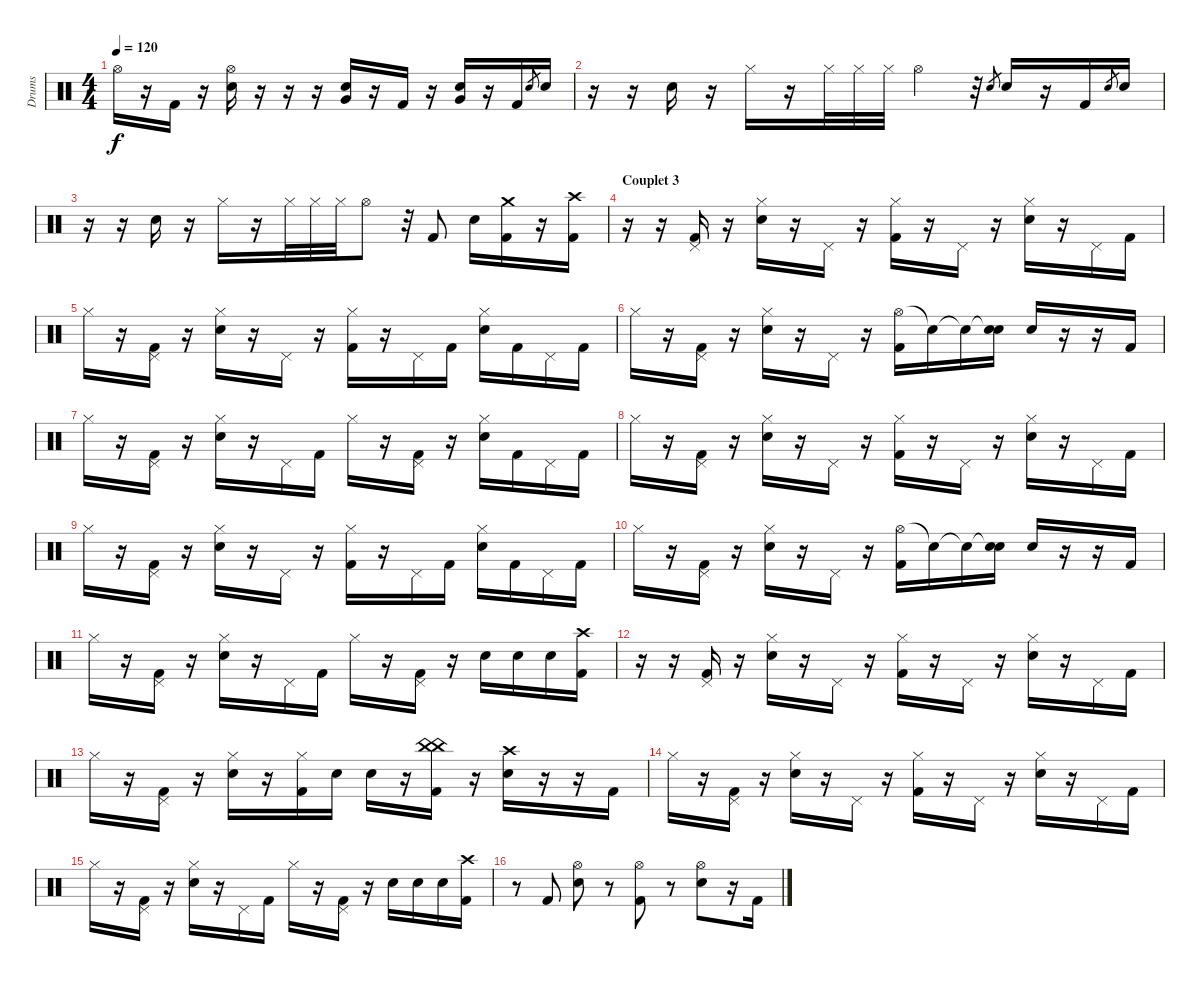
\track ("Drums" "Drums") {instrument percussion}
\staff {score}
\articulation defaults
\ts (4 4)
\tempo 120
\clef neutral
\ks c "Hi-Hat (open)".16{dy f}
r.16 "Kick (hit) 2".16 r.16 ("Hi-Hat (open)" "Electric Snare (hit)").16 r.16 r.16 r.16 ("Electric Snare (hit)" "Very Low Tom (hit)").16 r.16 "Kick (hit) 2".16 r.16 ("Electric Snare (hit)" "Very Low Tom (hit)").16 r.16 "Kick (hit) 2".16 "Electric Snare (hit)".8{gr} "Electric Snare (hit)".16 |
r.16 r.16 "Electric Snare (hit)".16 r.16 "Hi-Hat (closed)".16 r.16 "Hi-Hat (closed)".32 "Hi-Hat (closed)".32 "Hi-Hat (closed)".32 "Hi-Hat (open)".4 r.32 "Electric Snare (hit)".8{gr} "Electric Snare (hit)".16 r.16 "Kick (hit) 2".16 "Electric Snare (hit)".8{gr} "Electric Snare (hit)".16 |
r.16 r.16 "Electric Snare (hit)".16 r.16 "Hi-Hat (closed)".16 r.16 "Hi-Hat (closed)".32 "Hi-Hat (closed)".32 "Hi-Hat (closed)".32 "Hi-Hat (open)".8 r.32 "Kick (hit) 2".8 "Electric Snare (hit)".16 ("Crash medium (hit)" "Kick (hit) 2").16 r.16 ("Crash high (hit)" "Kick (hit) 2").16 |
\section ("" "Couplet 3")
r.16 r.16 ("Pedal Hi-Hat (hit)" "Kick (hit) 2").16 r.16 ("Hi-Hat (closed)" "Electric Snare (hit)").16 r.16 "Pedal Hi-Hat (hit)".16 r.16 ("Hi-Hat (closed)" "Kick (hit) 2").16 r.16 "Pedal Hi-Hat (hit)".16 r.16 ("Hi-Hat (closed)" "Electric Snare (hit)").16 r.16 "Pedal Hi-Hat (hit)".16 "Kick (hit) 2".16 |
"Hi-Hat (closed)".16 r.16 ("Pedal Hi-Hat (hit)" "Kick (hit) 2").16 r.16 ("Hi-Hat (closed)" "Electric Snare (hit)").16 r.16 "Pedal Hi-Hat (hit)".16 r.16 ("Hi-Hat (closed)" "Kick (hit) 2").16 r.16 "Pedal Hi-Hat (hit)".16 "Kick (hit) 2".16 ("Hi-Hat (closed)" "Electric Snare (hit)").16 "Kick (hit) 2".16 "Pedal Hi-Hat (hit)".16 "Kick (hit) 2".16 |
"Hi-Hat (closed)".16 r.16 ("Pedal Hi-Hat (hit)" "Kick (hit) 2").16 r.16 ("Hi-Hat (closed)" "Electric Snare (hit)").16 r.16 "Pedal Hi-Hat (hit)".16 r.16 ("Hi-Hat (open)" "Kick (hit) 2").16 "Snare (hit)"{t}.16 "Snare (hit)"{t}.16 ("Snare (hit)"{t} "Electric Snare (hit)").16 "Electric Snare (hit)".16 r.16 r.16 "Kick (hit) 2".16 |
"Hi-Hat (closed)".16 r.16 ("Pedal Hi-Hat (hit)" "Kick (hit) 2").16 r.16 ("Hi-Hat (closed)" "Electric Snare (hit)").16 r.16 "Pedal Hi-Hat (hit)".16 "Kick (hit) 2".16 "Hi-Hat (closed)".16 r.16 ("Pedal Hi-Hat (hit)" "Kick (hit) 2").16 r.16 ("Hi-Hat (closed)" "Electric Snare (hit)").16 "Kick (hit) 2".16 "Pedal Hi-Hat (hit)".16 "Kick (hit) 2".16 |
"Hi-Hat (closed)".16 r.16 ("Pedal Hi-Hat (hit)" "Kick (hit) 2").16 r.16 ("Hi-Hat (closed)" "Electric Snare (hit)").16 r.16 "Pedal Hi-Hat (hit)".16 r.16 ("Hi-Hat (closed)" "Kick (hit) 2").16 r.16 "Pedal Hi-Hat (hit)".16 r.16 ("Hi-Hat (closed)" "Electric Snare (hit)").16 r.16 "Pedal Hi-Hat (hit)".16 "Kick (hit) 2".16 |
"Hi-Hat (closed)".16 r.16 ("Pedal Hi-Hat (hit)" "Kick (hit) 2").16 r.16 ("Hi-Hat (closed)" "Electric Snare (hit)").16 r.16 "Pedal Hi-Hat (hit)".16 r.16 ("Hi-Hat (closed)" "Kick (hit) 2").16 r.16 "Pedal Hi-Hat (hit)".16 "Kick (hit) 2".16 ("Hi-Hat (closed)" "Electric Snare (hit)").16 "Kick (hit) 2".16 "Pedal Hi-Hat (hit)".16 "Kick (hit) 2".16 |
"Hi-Hat (closed)".16 r.16 ("Pedal Hi-Hat (hit)" "Kick (hit) 2").16 r.16 ("Hi-Hat (closed)" "Electric Snare (hit)").16 r.16 "Pedal Hi-Hat (hit)".16 r.16 ("Hi-Hat (open)" "Kick (hit) 2").16 "Snare (hit)"{t}.16 "Snare (hit)"{t}.16 ("Snare (hit)"{t} "Electric Snare (hit)").16 "Electric Snare (hit)".16 r.16 r.16 "Kick (hit) 2".16 |
"Hi-Hat (closed)".16 r.16 ("Pedal Hi-Hat (hit)" "Kick (hit) 2").16 r.16 ("Hi-Hat (closed)" "Electric Snare (hit)").16 r.16 "Pedal Hi-Hat (hit)".16 "Kick (hit) 2".16 "Hi-Hat (closed)".16 r.16 ("Pedal Hi-Hat (hit)" "Kick (hit) 2").16 r.16 "Electric Snare (hit)".16 "Electric Snare (hit)".16 "Electric Snare (hit)".16 ("Crash high (hit)" "Kick (hit) 2").16 |
r.16 r.16 ("Pedal Hi-Hat (hit)" "Kick (hit) 2").16 r.16 ("Hi-Hat (closed)" "Electric Snare (hit)").16 r.16 "Pedal Hi-Hat (hit)".16 r.16 ("Hi-Hat (closed)" "Kick (hit) 2").16 r.16 "Pedal Hi-Hat (hit)".16 r.16 ("Hi-Hat (closed)" "Electric Snare (hit)").16 r.16 "Pedal Hi-Hat (hit)".16 "Kick (hit) 2".16 |
"Hi-Hat (closed)".16 r.16 ("Pedal Hi-Hat (hit)" "Kick (hit) 2").16 r.16 ("Hi-Hat (closed)" "Electric Snare (hit)").16 r.16 ("Hi-Hat (closed)" "Kick (hit) 2").16 "Electric Snare (hit)".16 "Electric Snare (hit)".16 r.16 ("China (hit)" "China (hit)" "Kick (hit) 2").16 r.16 ("Crash high (hit)" "Electric Snare (hit)").16 r.16 r.16 "Kick (hit) 2".16 |
"Hi-Hat (closed)".16 r.16 ("Pedal Hi-Hat (hit)" "Kick (hit) 2").16 r.16 ("Hi-Hat (closed)" "Electric Snare (hit)").16 r.16 "Pedal Hi-Hat (hit)".16 r.16 ("Hi-Hat (closed)" "Kick (hit) 2").16 r.16 "Pedal Hi-Hat (hit)".16 r.16 ("Hi-Hat (closed)" "Electric Snare (hit)").16 r.16 "Pedal Hi-Hat (hit)".16 "Kick (hit) 2".16 |
"Hi-Hat (closed)".16 r.16 ("Pedal Hi-Hat (hit)" "Kick (hit) 2").16 r.16 ("Hi-Hat (closed)" "Electric Snare (hit)").16 r.16 "Pedal Hi-Hat (hit)".16 "Kick (hit) 2".16 "Hi-Hat (closed)".16 r.16 ("Pedal Hi-Hat (hit)" "Kick (hit) 2").16 r.16 "Electric Snare (hit)".16 "Electric Snare (hit)".16 "Electric Snare (hit)".16 ("Crash high (hit)" "Kick (hit) 2").16 |
r.8 "Kick (hit) 2".8 ("Hi-Hat (open)" "Electric Snare (hit)").8 r.8 ("Hi-Hat (open)" "Kick (hit) 2").8 r.8 ("Hi-Hat (open)" "Electric Snare (hit)").8 r.16 "Kick (hit) 2".16
